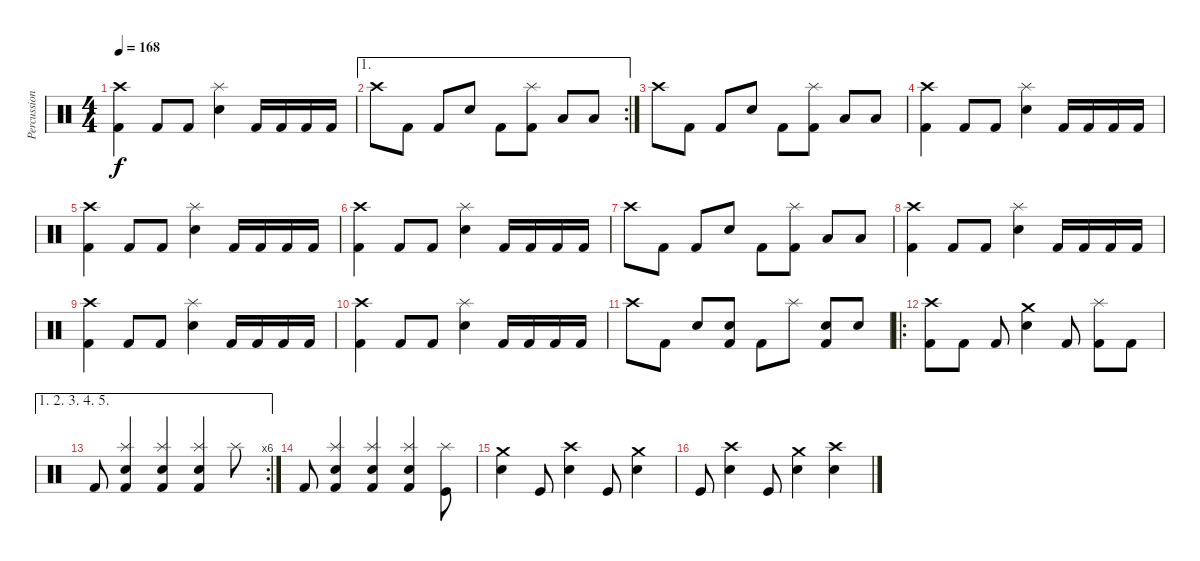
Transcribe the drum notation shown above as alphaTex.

\track ("Percussion" "Percussion") {instrument percussion}
\staff {score}
\articulation defaults
\ts (4 4)
\tempo 168
\clef neutral
\ks c
("Crash high (hit)" "Kick (hit) 2").4{dy f} "Kick (hit) 2".8 "Kick (hit) 2".8 ("Splash (hit)" "Electric Snare (hit)").4 "Kick (hit) 2".16 "Kick (hit) 2".16 "Kick (hit) 2".16 "Kick (hit) 2".16 |
\ae 1
\rc 2 "Crash high (hit)".8 "Kick (hit) 2".8 "Kick (hit) 2".8 "Electric Snare (hit)".8 "Kick (hit) 2".8
("Splash (hit)" "Kick (hit) 2").8 "Low Floor Tom (hit)".8 "Low Floor Tom (hit)".8 |
"Crash high (hit)".8 "Kick (hit) 2".8 "Kick (hit) 2".8 "Electric Snare (hit)".8 "Kick (hit) 2".8 ("Splash (hit)" "Kick (hit) 2").8 "Low Floor Tom (hit)".8 "Low Floor Tom (hit)".8 |
("Crash high (hit)" "Kick (hit) 2").4 "Kick (hit) 2".8 "Kick (hit) 2".8 ("Splash (hit)" "Electric Snare (hit)").4 "Kick (hit) 2".16 "Kick (hit) 2".16 "Kick (hit) 2".16 "Kick (hit) 2".16 |
("Crash high (hit)" "Kick (hit) 2").4 "Kick (hit) 2".8 "Kick (hit) 2".8 ("Splash (hit)" "Electric Snare (hit)").4 "Kick (hit) 2".16 "Kick (hit) 2".16 "Kick (hit) 2".16 "Kick (hit) 2".16 |
("Crash high (hit)" "Kick (hit) 2").4 "Kick (hit) 2".8 "Kick (hit) 2".8 ("Splash (hit)" "Electric Snare (hit)").4 "Kick (hit) 2".16 "Kick (hit) 2".16 "Kick (hit) 2".16 "Kick (hit) 2".16 |
"Crash high (hit)".8 "Kick (hit) 2".8 "Kick (hit) 2".8 "Electric Snare (hit)".8 "Kick (hit) 2".8 ("Splash (hit)" "Kick (hit) 2").8 "Low Floor Tom (hit)".8 "Low Floor Tom (hit)".8 |
("Crash high (hit)" "Kick (hit) 2").4 "Kick (hit) 2".8 "Kick (hit) 2".8 ("Splash (hit)" "Electric Snare (hit)").4 "Kick (hit) 2".16 "Kick (hit) 2".16 "Kick (hit) 2".16 "Kick (hit) 2".16 |
("Crash high (hit)" "Kick (hit) 2").4 "Kick (hit) 2".8 "Kick (hit) 2".8 ("Splash (hit)" "Electric Snare (hit)").4 "Kick (hit) 2".16 "Kick (hit) 2".16 "Kick (hit) 2".16 "Kick (hit) 2".16 |
("Crash high (hit)" "Kick (hit) 2").4 "Kick (hit) 2".8 "Kick (hit) 2".8 ("Splash (hit)" "Electric Snare (hit)").4 "Kick (hit) 2".16 "Kick (hit) 2".16 "Kick (hit) 2".16 "Kick (hit) 2".16 |
"Crash high (hit)".8 "Kick (hit) 2".8 "Electric Snare (hit)".8 ("Electric Snare (hit)" "Kick (hit) 2").8 "Kick (hit) 2".8 "Splash (hit)".8 ("Electric Snare (hit)" "Kick (hit) 2").8 "Electric Snare (hit)".8 |
\ro
("Crash high (hit)" "Kick (hit) 2").8 "Kick (hit) 2".8 "Kick (hit) 2".8 ("Crash medium (hit)" "Electric Snare (hit)").4 "Kick (hit) 2".8 ("Splash (hit)" "Kick (hit) 2").8 "Kick (hit) 2".8 |
\ae (1 2 3 4 5)
\rc 6 "Kick (hit) 2".8
("Splash (hit)" "Electric Snare (hit)" "Kick (hit) 2").4 ("Splash (hit)" "Electric Snare (hit)" "Kick (hit) 2").4 ("Splash (hit)" "Electric Snare (hit)" "Kick (hit) 2").4 "Splash (hit)".8 |
"Kick (hit) 2".8 ("Splash (hit)" "Electric Snare (hit)" "Kick (hit) 2").4 ("Splash (hit)" "Electric Snare (hit)" "Kick (hit) 2").4 ("Splash (hit)" "Electric Snare (hit)" "Kick (hit) 2").4 ("Splash (hit)" "Kick (hit)").8 |
("Crash medium (hit)" "Electric Snare (hit)").4 "Kick (hit)".8 ("Crash high (hit)" "Electric Snare (hit)").4 "Kick (hit)".8 ("Crash medium (hit)" "Electric Snare (hit)").4 |
"Kick (hit)".8 ("Crash high (hit)" "Electric Snare (hit)").4 "Kick (hit)".8 ("Crash medium (hit)" "Electric Snare (hit)").4 ("Crash high (hit)" "Electric Snare (hit)").4
